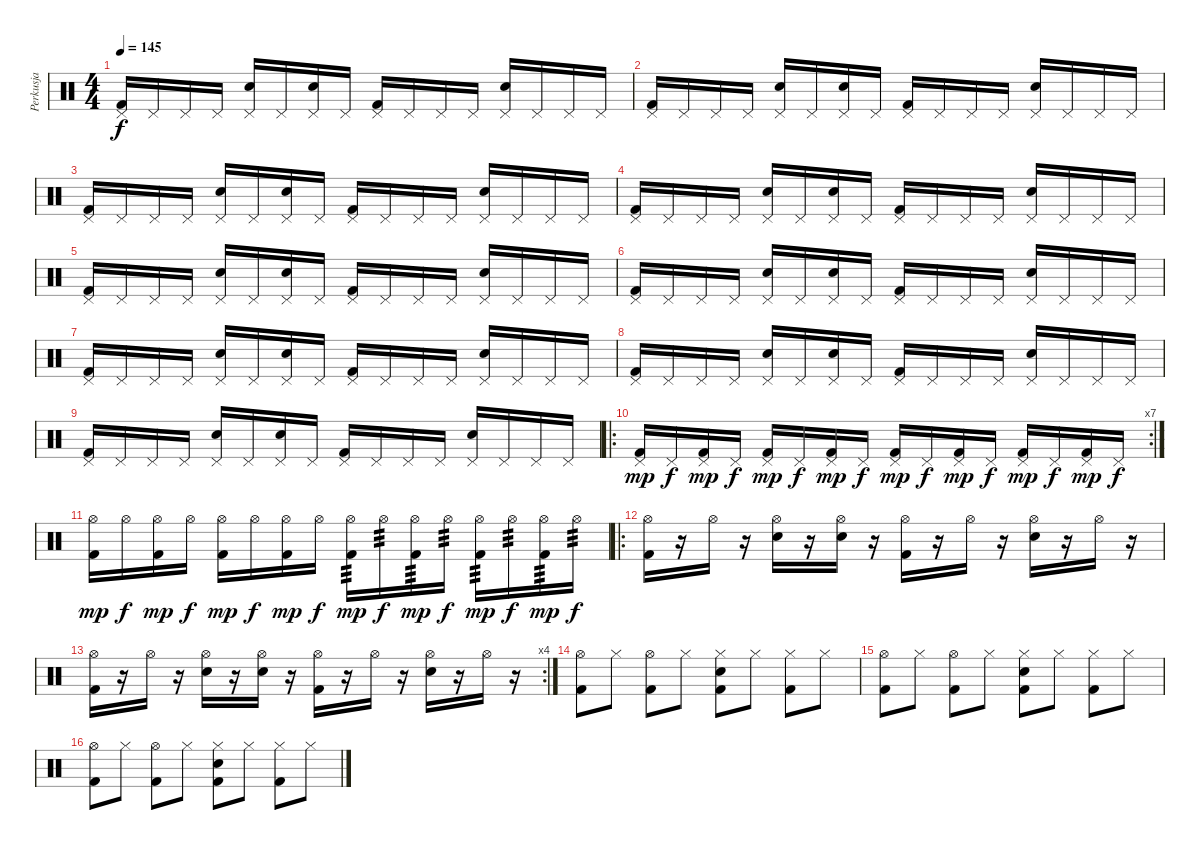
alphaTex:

\track ("Perkusja" "Perkusja") {instrument percussion}
\staff {score}
\articulation defaults
\ts (4 4)
\tempo 145
\clef neutral
\ks c
("Pedal Hi-Hat (hit)" "Kick (hit) 2").16{dy f} "Pedal Hi-Hat (hit)".16 "Pedal Hi-Hat (hit)".16 "Pedal Hi-Hat (hit)".16 ("Pedal Hi-Hat (hit)" "Electric Snare (hit)").16 "Pedal Hi-Hat (hit)".16 ("Pedal Hi-Hat (hit)" "Electric Snare (hit)").16 "Pedal Hi-Hat (hit)".16 ("Pedal Hi-Hat (hit)" "Kick (hit) 2").16 "Pedal Hi-Hat (hit)".16 "Pedal Hi-Hat (hit)".16 "Pedal Hi-Hat (hit)".16 ("Pedal Hi-Hat (hit)" "Electric Snare (hit)").16 "Pedal Hi-Hat (hit)".16 "Pedal Hi-Hat (hit)".16 "Pedal Hi-Hat (hit)".16 |
("Pedal Hi-Hat (hit)" "Kick (hit) 2").16 "Pedal Hi-Hat (hit)".16 "Pedal Hi-Hat (hit)".16 "Pedal Hi-Hat (hit)".16 ("Pedal Hi-Hat (hit)" "Electric Snare (hit)").16 "Pedal Hi-Hat (hit)".16 ("Pedal Hi-Hat (hit)" "Electric Snare (hit)").16 "Pedal Hi-Hat (hit)".16 ("Pedal Hi-Hat (hit)" "Kick (hit) 2").16 "Pedal Hi-Hat (hit)".16 "Pedal Hi-Hat (hit)".16 "Pedal Hi-Hat (hit)".16 ("Pedal Hi-Hat (hit)" "Electric Snare (hit)").16 "Pedal Hi-Hat (hit)".16 "Pedal Hi-Hat (hit)".16 "Pedal Hi-Hat (hit)".16 |
("Pedal Hi-Hat (hit)" "Kick (hit) 2").16 "Pedal Hi-Hat (hit)".16 "Pedal Hi-Hat (hit)".16 "Pedal Hi-Hat (hit)".16 ("Pedal Hi-Hat (hit)" "Electric Snare (hit)").16 "Pedal Hi-Hat (hit)".16 ("Pedal Hi-Hat (hit)" "Electric Snare (hit)").16 "Pedal Hi-Hat (hit)".16 ("Pedal Hi-Hat (hit)" "Kick (hit) 2").16 "Pedal Hi-Hat (hit)".16 "Pedal Hi-Hat (hit)".16 "Pedal Hi-Hat (hit)".16 ("Pedal Hi-Hat (hit)" "Electric Snare (hit)").16 "Pedal Hi-Hat (hit)".16 "Pedal Hi-Hat (hit)".16 "Pedal Hi-Hat (hit)".16 |
("Pedal Hi-Hat (hit)" "Kick (hit) 2").16 "Pedal Hi-Hat (hit)".16 "Pedal Hi-Hat (hit)".16 "Pedal Hi-Hat (hit)".16 ("Pedal Hi-Hat (hit)" "Electric Snare (hit)").16 "Pedal Hi-Hat (hit)".16 ("Pedal Hi-Hat (hit)" "Electric Snare (hit)").16 "Pedal Hi-Hat (hit)".16 ("Pedal Hi-Hat (hit)" "Kick (hit) 2").16 "Pedal Hi-Hat (hit)".16 "Pedal Hi-Hat (hit)".16 "Pedal Hi-Hat (hit)".16 ("Pedal Hi-Hat (hit)" "Electric Snare (hit)").16 "Pedal Hi-Hat (hit)".16 "Pedal Hi-Hat (hit)".16 "Pedal Hi-Hat (hit)".16 |
("Pedal Hi-Hat (hit)" "Kick (hit) 2").16 "Pedal Hi-Hat (hit)".16 "Pedal Hi-Hat (hit)".16 "Pedal Hi-Hat (hit)".16 ("Pedal Hi-Hat (hit)" "Electric Snare (hit)").16 "Pedal Hi-Hat (hit)".16 ("Pedal Hi-Hat (hit)" "Electric Snare (hit)").16 "Pedal Hi-Hat (hit)".16 ("Pedal Hi-Hat (hit)" "Kick (hit) 2").16 "Pedal Hi-Hat (hit)".16 "Pedal Hi-Hat (hit)".16 "Pedal Hi-Hat (hit)".16 ("Pedal Hi-Hat (hit)" "Electric Snare (hit)").16 "Pedal Hi-Hat (hit)".16 "Pedal Hi-Hat (hit)".16 "Pedal Hi-Hat (hit)".16 |
("Pedal Hi-Hat (hit)" "Kick (hit) 2").16 "Pedal Hi-Hat (hit)".16 "Pedal Hi-Hat (hit)".16 "Pedal Hi-Hat (hit)".16 ("Pedal Hi-Hat (hit)" "Electric Snare (hit)").16 "Pedal Hi-Hat (hit)".16 ("Pedal Hi-Hat (hit)" "Electric Snare (hit)").16 "Pedal Hi-Hat (hit)".16 ("Pedal Hi-Hat (hit)" "Kick (hit) 2").16 "Pedal Hi-Hat (hit)".16 "Pedal Hi-Hat (hit)".16 "Pedal Hi-Hat (hit)".16 ("Pedal Hi-Hat (hit)" "Electric Snare (hit)").16 "Pedal Hi-Hat (hit)".16 "Pedal Hi-Hat (hit)".16 "Pedal Hi-Hat (hit)".16 |
("Pedal Hi-Hat (hit)" "Kick (hit) 2").16 "Pedal Hi-Hat (hit)".16 "Pedal Hi-Hat (hit)".16 "Pedal Hi-Hat (hit)".16 ("Pedal Hi-Hat (hit)" "Electric Snare (hit)").16 "Pedal Hi-Hat (hit)".16 ("Pedal Hi-Hat (hit)" "Electric Snare (hit)").16 "Pedal Hi-Hat (hit)".16 ("Pedal Hi-Hat (hit)" "Kick (hit) 2").16 "Pedal Hi-Hat (hit)".16 "Pedal Hi-Hat (hit)".16 "Pedal Hi-Hat (hit)".16 ("Pedal Hi-Hat (hit)" "Electric Snare (hit)").16 "Pedal Hi-Hat (hit)".16 "Pedal Hi-Hat (hit)".16 "Pedal Hi-Hat (hit)".16 |
("Pedal Hi-Hat (hit)" "Kick (hit) 2").16 "Pedal Hi-Hat (hit)".16 "Pedal Hi-Hat (hit)".16 "Pedal Hi-Hat (hit)".16 ("Pedal Hi-Hat (hit)" "Electric Snare (hit)").16 "Pedal Hi-Hat (hit)".16 ("Pedal Hi-Hat (hit)" "Electric Snare (hit)").16 "Pedal Hi-Hat (hit)".16 ("Pedal Hi-Hat (hit)" "Kick (hit) 2").16 "Pedal Hi-Hat (hit)".16 "Pedal Hi-Hat (hit)".16 "Pedal Hi-Hat (hit)".16 ("Pedal Hi-Hat (hit)" "Electric Snare (hit)").16 "Pedal Hi-Hat (hit)".16 "Pedal Hi-Hat (hit)".16 "Pedal Hi-Hat (hit)".16 |
("Pedal Hi-Hat (hit)" "Kick (hit) 2").16 "Pedal Hi-Hat (hit)".16 "Pedal Hi-Hat (hit)".16 "Pedal Hi-Hat (hit)".16 ("Pedal Hi-Hat (hit)" "Electric Snare (hit)").16 "Pedal Hi-Hat (hit)".16 ("Pedal Hi-Hat (hit)" "Electric Snare (hit)").16 "Pedal Hi-Hat (hit)".16 ("Pedal Hi-Hat (hit)" "Kick (hit) 2").16 "Pedal Hi-Hat (hit)".16 "Pedal Hi-Hat (hit)".16 "Pedal Hi-Hat (hit)".16 ("Pedal Hi-Hat (hit)" "Electric Snare (hit)").16 "Pedal Hi-Hat (hit)".16 "Pedal Hi-Hat (hit)".16 "Pedal Hi-Hat (hit)".16 |
\ro
\rc 7
("Pedal Hi-Hat (hit)" "Kick (hit) 2").16{dy mp} "Pedal Hi-Hat (hit)".16{dy f} ("Pedal Hi-Hat (hit)" "Kick (hit) 2").16{dy mp} "Pedal Hi-Hat (hit)".16{dy f} ("Pedal Hi-Hat (hit)" "Kick (hit) 2").16{dy mp} "Pedal Hi-Hat (hit)".16{dy f} ("Pedal Hi-Hat (hit)" "Kick (hit) 2").16{dy mp} "Pedal Hi-Hat (hit)".16{dy f} ("Pedal Hi-Hat (hit)" "Kick (hit) 2").16{dy mp} "Pedal Hi-Hat (hit)".16{dy f} ("Pedal Hi-Hat (hit)" "Kick (hit) 2").16{dy mp} "Pedal Hi-Hat (hit)".16{dy f} ("Pedal Hi-Hat (hit)" "Kick (hit) 2").16{dy mp} "Pedal Hi-Hat (hit)".16{dy f} ("Pedal Hi-Hat (hit)" "Kick (hit) 2").16{dy mp} "Pedal Hi-Hat (hit)".16{dy f} |
("Hi-Hat (open)" "Kick (hit) 2").16{dy mp} "Hi-Hat (open)".16{dy f} ("Hi-Hat (open)" "Kick (hit) 2").16{dy mp} "Hi-Hat (open)".16{dy f} ("Hi-Hat (open)" "Kick (hit) 2").16{dy mp} "Hi-Hat (open)".16{dy f} ("Hi-Hat (open)" "Kick (hit) 2").16{dy mp} "Hi-Hat (open)".16{dy f} ("Hi-Hat (open)" "Kick (hit) 2").16{tp 3 dy mp} "Hi-Hat (open)".16{tp 3 dy f} ("Hi-Hat (open)" "Kick (hit) 2").16{tp 3 dy mp} "Hi-Hat (open)".16{tp 3 dy f} ("Hi-Hat (open)" "Kick (hit) 2").16{tp 3 dy mp} "Hi-Hat (open)".16{tp 3 dy f} ("Hi-Hat (open)" "Kick (hit) 2").16{tp 3 dy mp} "Hi-Hat (open)".16{tp 3 dy f} |
\ro
("Hi-Hat (open)" "Kick (hit) 2").16 r.16 "Hi-Hat (open)".16 r.16 ("Hi-Hat (open)" "Electric Snare (hit)").16 r.16 ("Hi-Hat (open)" "Electric Snare (hit)").16 r.16 ("Hi-Hat (open)" "Kick (hit) 2").16 r.16 "Hi-Hat (open)".16 r.16 ("Hi-Hat (open)" "Electric Snare (hit)").16 r.16 "Hi-Hat (open)".16 r.16 |
\rc 4
("Hi-Hat (open)" "Kick (hit) 2").16 r.16 "Hi-Hat (open)".16 r.16 ("Hi-Hat (open)" "Electric Snare (hit)").16 r.16 ("Hi-Hat (open)" "Electric Snare (hit)").16 r.16 ("Hi-Hat (open)" "Kick (hit) 2").16 r.16 "Hi-Hat (open)".16 r.16 ("Hi-Hat (open)" "Electric Snare (hit)").16 r.16 "Hi-Hat (open)".16 r.16 |
("Hi-Hat (open)" "Kick (hit) 2").8 "Hi-Hat (closed)".8 ("Hi-Hat (open)" "Kick (hit) 2").8 "Hi-Hat (closed)".8 ("Hi-Hat (closed)" "Electric Snare (hit)" "Kick (hit) 2").8 "Hi-Hat (closed)".8 ("Hi-Hat (closed)" "Kick (hit) 2").8 "Hi-Hat (closed)".8 |
("Hi-Hat (open)" "Kick (hit) 2").8 "Hi-Hat (closed)".8 ("Hi-Hat (open)" "Kick (hit) 2").8 "Hi-Hat (closed)".8 ("Hi-Hat (closed)" "Electric Snare (hit)" "Kick (hit) 2").8 "Hi-Hat (closed)".8 ("Hi-Hat (closed)" "Kick (hit) 2").8 "Hi-Hat (closed)".8 |
("Hi-Hat (open)" "Kick (hit) 2").8 "Hi-Hat (closed)".8 ("Hi-Hat (open)" "Kick (hit) 2").8 "Hi-Hat (closed)".8 ("Hi-Hat (closed)" "Electric Snare (hit)" "Kick (hit) 2").8 "Hi-Hat (closed)".8 ("Hi-Hat (closed)" "Kick (hit) 2").8 "Hi-Hat (closed)".8
